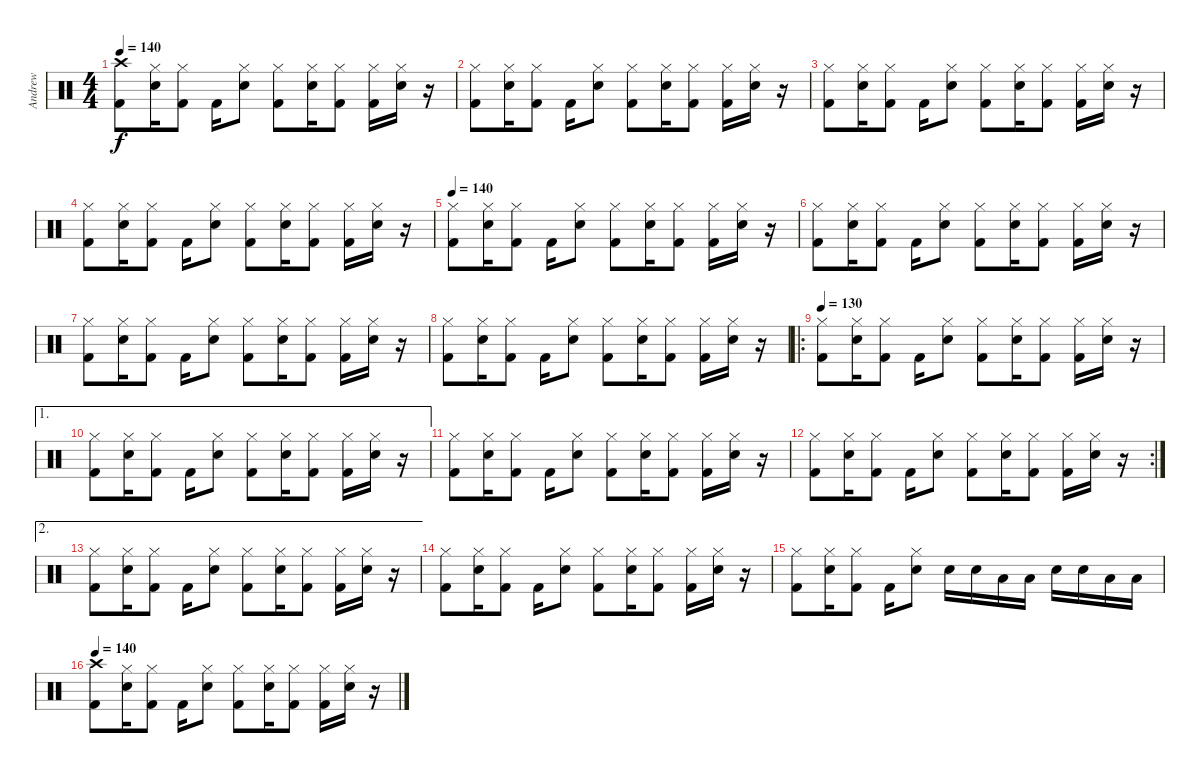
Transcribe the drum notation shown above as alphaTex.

\track ("Andrew" "Andrew") {instrument percussion}
\staff {score}
\articulation defaults
\ts (4 4)
\tempo 140
\clef neutral
\ks c
("Kick (hit) 2" "Crash high (hit)").8{dy f} ("Hi-Hat (closed)" "Snare (hit) 2").16 ("Hi-Hat (closed)" "Kick (hit) 2").8 "Kick (hit) 2".16 ("Hi-Hat (closed)" "Snare (hit) 2").8 ("Hi-Hat (closed)" "Kick (hit) 2").8 ("Hi-Hat (closed)" "Snare (hit) 2").16 ("Hi-Hat (closed)" "Kick (hit) 2").8 ("Hi-Hat (closed)" "Kick (hit) 2").16 ("Hi-Hat (closed)" "Snare (hit) 2").16 r.16 |
("Hi-Hat (closed)" "Kick (hit) 2").8 ("Hi-Hat (closed)" "Snare (hit) 2").16 ("Hi-Hat (closed)" "Kick (hit) 2").8 "Kick (hit) 2".16 ("Hi-Hat (closed)" "Snare (hit) 2").8 ("Hi-Hat (closed)" "Kick (hit) 2").8 ("Hi-Hat (closed)" "Snare (hit) 2").16 ("Hi-Hat (closed)" "Kick (hit) 2").8 ("Hi-Hat (closed)" "Kick (hit) 2").16 ("Hi-Hat (closed)" "Snare (hit) 2").16 r.16 |
("Hi-Hat (closed)" "Kick (hit) 2").8 ("Hi-Hat (closed)" "Snare (hit) 2").16 ("Hi-Hat (closed)" "Kick (hit) 2").8 "Kick (hit) 2".16 ("Hi-Hat (closed)" "Snare (hit) 2").8 ("Hi-Hat (closed)" "Kick (hit) 2").8 ("Hi-Hat (closed)" "Snare (hit) 2").16 ("Hi-Hat (closed)" "Kick (hit) 2").8 ("Hi-Hat (closed)" "Kick (hit) 2").16 ("Hi-Hat (closed)" "Snare (hit) 2").16 r.16 |
("Hi-Hat (closed)" "Kick (hit) 2").8 ("Hi-Hat (closed)" "Snare (hit) 2").16 ("Hi-Hat (closed)" "Kick (hit) 2").8 "Kick (hit) 2".16 ("Hi-Hat (closed)" "Snare (hit) 2").8 ("Hi-Hat (closed)" "Kick (hit) 2").8 ("Hi-Hat (closed)" "Snare (hit) 2").16 ("Hi-Hat (closed)" "Kick (hit) 2").8 ("Hi-Hat (closed)" "Kick (hit) 2").16 ("Hi-Hat (closed)" "Snare (hit) 2").16 r.16 |
\tempo 140
("Hi-Hat (closed)" "Kick (hit) 2").8 ("Hi-Hat (closed)" "Snare (hit) 2").16 ("Hi-Hat (closed)" "Kick (hit) 2").8 "Kick (hit) 2".16 ("Hi-Hat (closed)" "Snare (hit) 2").8 ("Hi-Hat (closed)" "Kick (hit) 2").8 ("Hi-Hat (closed)" "Snare (hit) 2").16 ("Hi-Hat (closed)" "Kick (hit) 2").8 ("Hi-Hat (closed)" "Kick (hit) 2").16 ("Hi-Hat (closed)" "Snare (hit) 2").16 r.16 |
("Hi-Hat (closed)" "Kick (hit) 2").8 ("Hi-Hat (closed)" "Snare (hit) 2").16 ("Hi-Hat (closed)" "Kick (hit) 2").8 "Kick (hit) 2".16 ("Hi-Hat (closed)" "Snare (hit) 2").8 ("Hi-Hat (closed)" "Kick (hit) 2").8 ("Hi-Hat (closed)" "Snare (hit) 2").16 ("Hi-Hat (closed)" "Kick (hit) 2").8 ("Hi-Hat (closed)" "Kick (hit) 2").16 ("Hi-Hat (closed)" "Snare (hit) 2").16 r.16 |
("Hi-Hat (closed)" "Kick (hit) 2").8 ("Hi-Hat (closed)" "Snare (hit) 2").16 ("Hi-Hat (closed)" "Kick (hit) 2").8 "Kick (hit) 2".16 ("Hi-Hat (closed)" "Snare (hit) 2").8 ("Hi-Hat (closed)" "Kick (hit) 2").8 ("Hi-Hat (closed)" "Snare (hit) 2").16 ("Hi-Hat (closed)" "Kick (hit) 2").8 ("Hi-Hat (closed)" "Kick (hit) 2").16 ("Hi-Hat (closed)" "Snare (hit) 2").16 r.16 |
("Hi-Hat (closed)" "Kick (hit) 2").8 ("Hi-Hat (closed)" "Snare (hit) 2").16 ("Hi-Hat (closed)" "Kick (hit) 2").8 "Kick (hit) 2".16 ("Hi-Hat (closed)" "Snare (hit) 2").8 ("Hi-Hat (closed)" "Kick (hit) 2").8 ("Hi-Hat (closed)" "Snare (hit) 2").16 ("Hi-Hat (closed)" "Kick (hit) 2").8 ("Hi-Hat (closed)" "Kick (hit) 2").16 ("Hi-Hat (closed)" "Snare (hit) 2").16 r.16 |
\ro
\tempo 130
("Hi-Hat (closed)" "Kick (hit) 2").8 ("Hi-Hat (closed)" "Snare (hit) 2").16 ("Hi-Hat (closed)" "Kick (hit) 2").8 "Kick (hit) 2".16 ("Hi-Hat (closed)" "Snare (hit) 2").8 ("Hi-Hat (closed)" "Kick (hit) 2").8 ("Hi-Hat (closed)" "Snare (hit) 2").16 ("Hi-Hat (closed)" "Kick (hit) 2").8 ("Hi-Hat (closed)" "Kick (hit) 2").16 ("Hi-Hat (closed)" "Snare (hit) 2").16 r.16 |
\ae 1
("Hi-Hat (closed)" "Kick (hit) 2").8 ("Hi-Hat (closed)" "Snare (hit) 2").16 ("Hi-Hat (closed)" "Kick (hit) 2").8 "Kick (hit) 2".16 ("Hi-Hat (closed)" "Snare (hit) 2").8 ("Hi-Hat (closed)" "Kick (hit) 2").8 ("Hi-Hat (closed)" "Snare (hit) 2").16 ("Hi-Hat (closed)" "Kick (hit) 2").8 ("Hi-Hat (closed)" "Kick (hit) 2").16 ("Hi-Hat (closed)" "Snare (hit) 2").16 r.16 |
("Hi-Hat (closed)" "Kick (hit) 2").8 ("Hi-Hat (closed)" "Snare (hit) 2").16 ("Hi-Hat (closed)" "Kick (hit) 2").8 "Kick (hit) 2".16 ("Hi-Hat (closed)" "Snare (hit) 2").8 ("Hi-Hat (closed)" "Kick (hit) 2").8 ("Hi-Hat (closed)" "Snare (hit) 2").16 ("Hi-Hat (closed)" "Kick (hit) 2").8 ("Hi-Hat (closed)" "Kick (hit) 2").16 ("Hi-Hat (closed)" "Snare (hit) 2").16 r.16 |
\rc 2
("Hi-Hat (closed)" "Kick (hit) 2").8 ("Hi-Hat (closed)" "Snare (hit) 2").16 ("Hi-Hat (closed)" "Kick (hit) 2").8 "Kick (hit) 2".16 ("Hi-Hat (closed)" "Snare (hit) 2").8 ("Hi-Hat (closed)" "Kick (hit) 2").8 ("Hi-Hat (closed)" "Snare (hit) 2").16 ("Hi-Hat (closed)" "Kick (hit) 2").8 ("Hi-Hat (closed)" "Kick (hit) 2").16 ("Hi-Hat (closed)" "Snare (hit) 2").16 r.16 |
\ae 2
("Hi-Hat (closed)" "Kick (hit) 2").8 ("Hi-Hat (closed)" "Snare (hit) 2").16 ("Hi-Hat (closed)" "Kick (hit) 2").8 "Kick (hit) 2".16 ("Hi-Hat (closed)" "Snare (hit) 2").8 ("Hi-Hat (closed)" "Kick (hit) 2").8 ("Hi-Hat (closed)" "Snare (hit) 2").16 ("Hi-Hat (closed)" "Kick (hit) 2").8 ("Hi-Hat (closed)" "Kick (hit) 2").16 ("Hi-Hat (closed)" "Snare (hit) 2").16 r.16 |
("Hi-Hat (closed)" "Kick (hit) 2").8 ("Hi-Hat (closed)" "Snare (hit) 2").16 ("Hi-Hat (closed)" "Kick (hit) 2").8 "Kick (hit) 2".16 ("Hi-Hat (closed)" "Snare (hit) 2").8 ("Hi-Hat (closed)" "Kick (hit) 2").8 ("Hi-Hat (closed)" "Snare (hit) 2").16 ("Hi-Hat (closed)" "Kick (hit) 2").8 ("Hi-Hat (closed)" "Kick (hit) 2").16 ("Hi-Hat (closed)" "Snare (hit) 2").16 r.16 |
("Hi-Hat (closed)" "Kick (hit) 2").8 ("Hi-Hat (closed)" "Snare (hit) 2").16 ("Hi-Hat (closed)" "Kick (hit) 2").8 "Kick (hit) 2".16 ("Hi-Hat (closed)" "Snare (hit) 2").8 "Snare (hit) 2".16 "Snare (hit) 2".16 "Low Tom (hit)".16 "Low Tom (hit)".16 "Snare (hit) 2".16 "Snare (hit) 2".16 "Low Tom (hit)".16 "Low Tom (hit)".16 |
\tempo 140
("Kick (hit) 2" "Crash high (hit)").8 ("Hi-Hat (closed)" "Snare (hit) 2").16 ("Hi-Hat (closed)" "Kick (hit) 2").8 "Kick (hit) 2".16 ("Hi-Hat (closed)" "Snare (hit) 2").8 ("Hi-Hat (closed)" "Kick (hit) 2").8 ("Hi-Hat (closed)" "Snare (hit) 2").16 ("Hi-Hat (closed)" "Kick (hit) 2").8 ("Hi-Hat (closed)" "Kick (hit) 2").16 ("Hi-Hat (closed)" "Snare (hit) 2").16 r.16
